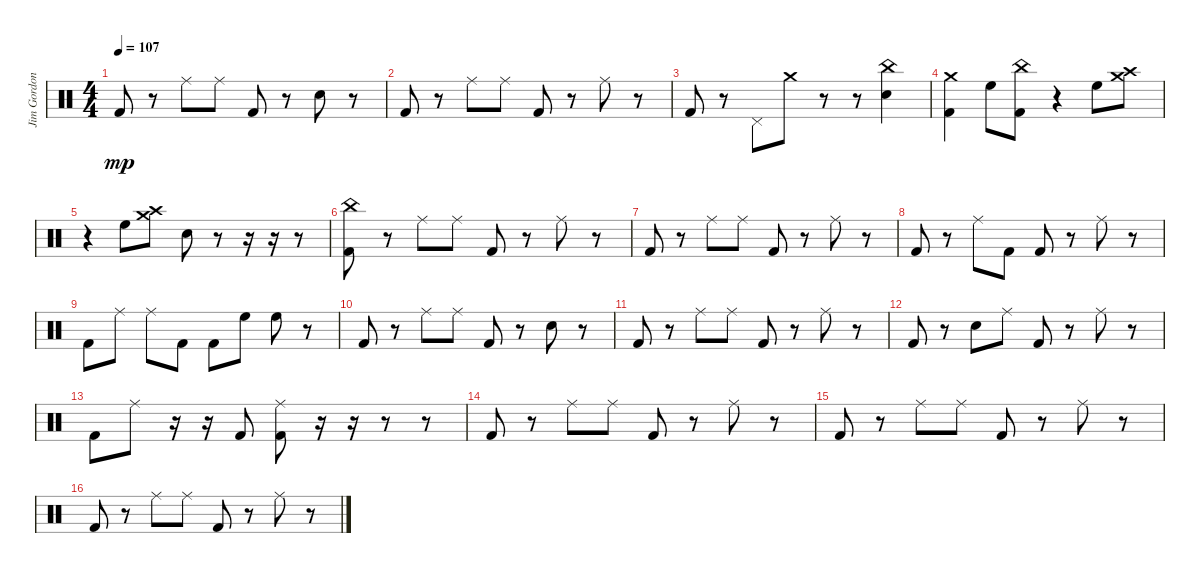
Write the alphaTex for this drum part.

\track ("Jim Gordon (Drums)" "Jim Gordon") {instrument percussion}
\staff {score}
\articulation defaults
\ts (4 4)
\tempo 107
\clef neutral
\ks c "Kick (hit) 2".8{dy mp}
r.8 "Ride (middle)".8 "Ride (middle)".8 "Kick (hit) 2".8 r.8 "Snare (hit) 2".8 r.8 |
"Kick (hit) 2".8 r.8 "Ride (middle)".8 "Ride (middle)".8 "Kick (hit) 2".8 r.8 "Ride (middle)".8 r.8 |
"Kick (hit) 2".8 r.8 "Pedal Hi-Hat (hit)".8 "Crash medium (hit)".8 r.8 r.8 ("Snare (hit) 2" "China (hit)").4 |
("Crash medium (hit)" "Kick (hit) 2").4 "High Floor Tom (hit)".8 ("Kick (hit) 2" "China (hit)").8 r.4 "High Floor Tom (hit)".8 ("Crash high (hit)" "Crash medium (hit)").8 |
r.4 "High Floor Tom (hit)".8 ("Crash high (hit)" "Crash medium (hit)").8 "Snare (hit) 2".8 r.8 r.16 r.16 r.8 |
("China (hit)" "Kick (hit) 2").8 r.8 "Ride (middle)".8 "Ride (middle)".8 "Kick (hit) 2".8 r.8 "Ride (middle)".8 r.8 |
"Kick (hit) 2".8 r.8 "Ride (middle)".8 "Ride (middle)".8 "Kick (hit) 2".8 r.8 "Ride (middle)".8 r.8 |
"Kick (hit) 2".8 r.8 "Ride (middle)".8 "Kick (hit) 2".8 "Kick (hit) 2".8 r.8 "Ride (middle)".8 r.8 |
"Kick (hit) 2".8 "Ride (middle)".8 "Ride (middle)".8 "Kick (hit) 2".8 "Kick (hit) 2".8 "High Floor Tom (hit)".8 "High Floor Tom (hit)".8 r.8 |
"Kick (hit) 2".8 r.8 "Ride (middle)".8 "Ride (middle)".8 "Kick (hit) 2".8 r.8 "Snare (hit) 2".8 r.8 |
"Kick (hit) 2".8 r.8 "Ride (middle)".8 "Ride (middle)".8 "Kick (hit) 2".8 r.8 "Ride (middle)".8 r.8 |
"Kick (hit) 2".8 r.8 "Snare (hit) 2".8 "Ride (middle)".8 "Kick (hit) 2".8 r.8 "Ride (middle)".8 r.8 |
"Kick (hit) 2".8 "Ride (middle)".8 r.16 r.16 "Kick (hit) 2".8 ("Ride (middle)" "Kick (hit) 2").8 r.16 r.16 r.8 r.8 |
"Kick (hit) 2".8 r.8 "Ride (middle)".8 "Ride (middle)".8 "Kick (hit) 2".8 r.8 "Ride (middle)".8 r.8 |
"Kick (hit) 2".8 r.8 "Ride (middle)".8 "Ride (middle)".8 "Kick (hit) 2".8 r.8 "Ride (middle)".8 r.8 |
"Kick (hit) 2".8 r.8 "Ride (middle)".8 "Ride (middle)".8 "Kick (hit) 2".8 r.8 "Ride (middle)".8 r.8
